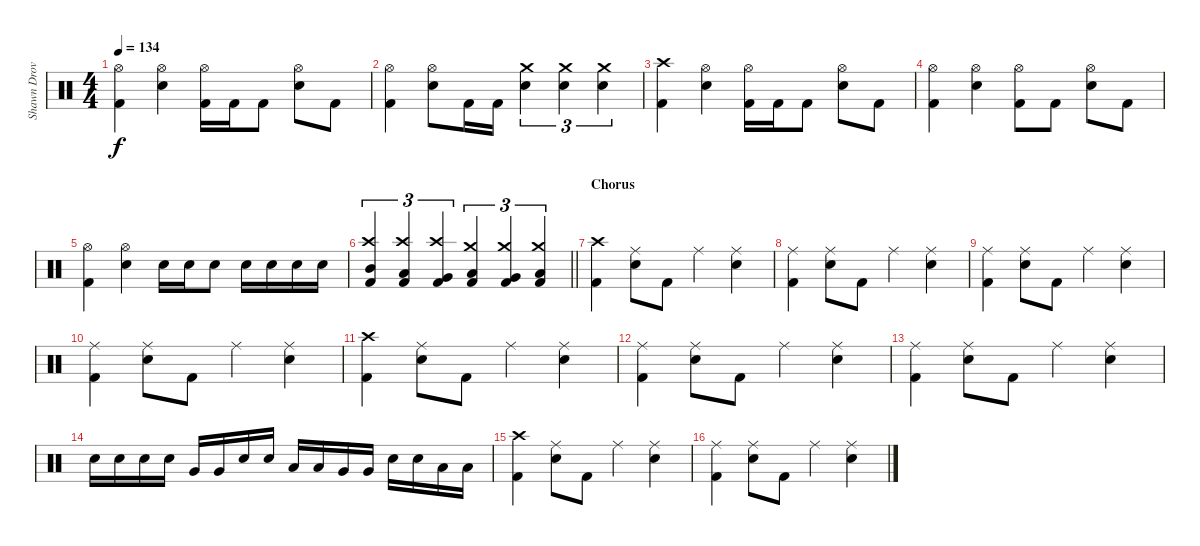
\track ("Shawn Drover" "Shawn Drov") {instrument percussion}
\staff {score}
\articulation defaults
\ts (4 4)
\tempo 134
\clef neutral
\ks c
("Hi-Hat (open)" "Kick (hit) 2").4{dy f} ("Hi-Hat (open)" "Snare (hit) 2").4 ("Hi-Hat (open)" "Kick (hit) 2").16 "Kick (hit) 2".16 "Kick (hit) 2".8 ("Hi-Hat (open)" "Snare (hit) 2").8 "Kick (hit) 2".8 |
("Hi-Hat (open)" "Kick (hit) 2").4 ("Hi-Hat (open)" "Snare (hit) 2").8 "Kick (hit) 2".16 "Kick (hit) 2".16 ("Crash medium (hit)" "Snare (hit) 2").4{tu (3 2)} ("Crash medium (hit)" "Snare (hit) 2").4{tu (3 2)} ("Crash medium (hit)" "Snare (hit) 2").4{tu (3 2)} |
("Crash high (hit)" "Kick (hit) 2").4 ("Hi-Hat (open)" "Snare (hit) 2").4 ("Hi-Hat (open)" "Kick (hit) 2").16 "Kick (hit) 2".16 "Kick (hit) 2".8 ("Hi-Hat (open)" "Snare (hit) 2").8 "Kick (hit) 2".8 |
("Hi-Hat (open)" "Kick (hit) 2").4 ("Hi-Hat (open)" "Snare (hit) 2").4 ("Hi-Hat (open)" "Kick (hit) 2").8 "Kick (hit) 2".8 ("Hi-Hat (open)" "Snare (hit) 2").8 "Kick (hit) 2".8 |
("Hi-Hat (open)" "Kick (hit) 2").4 ("Hi-Hat (open)" "Snare (hit) 2").4 "Snare (hit) 2".16 "Snare (hit) 2".16 "Snare (hit) 2".8 "Snare (hit) 2".16 "Snare (hit) 2".16 "Snare (hit) 2".16 "Snare (hit) 2".16 |
\barLineRight lightlight
("Crash high (hit)" "Mid Tom (hit)" "Kick (hit) 2").4{tu (3 2)} ("Crash high (hit)" "Low Tom (hit)" "Kick (hit) 2").4{tu (3 2)} ("Crash high (hit)" "Very Low Tom (hit)" "Kick (hit) 2").4{tu (3 2)} ("Crash medium (hit)" "Low Tom (hit)" "Kick (hit) 2").4{tu (3 2)} ("Crash medium (hit)" "Very Low Tom (hit)" "Kick (hit) 2").4{tu (3 2)} ("Crash medium (hit)" "Low Floor Tom (hit)" "Kick (hit) 2").4{tu (3 2)} |
\section ("" "Chorus")
("Crash high (hit)" "Kick (hit) 2").4 ("Ride (middle)" "Snare (hit) 2").8 "Kick (hit) 2".8 "Ride (middle)".4 ("Ride (middle)" "Snare (hit) 2").4 |
("Ride (middle)" "Kick (hit) 2").4 ("Ride (middle)" "Snare (hit) 2").8 "Kick (hit) 2".8 "Ride (middle)".4 ("Ride (middle)" "Snare (hit) 2").4 |
("Ride (middle)" "Kick (hit) 2").4 ("Ride (middle)" "Snare (hit) 2").8 "Kick (hit) 2".8 "Ride (middle)".4 ("Ride (middle)" "Snare (hit) 2").4 |
("Ride (middle)" "Kick (hit) 2").4 ("Ride (middle)" "Snare (hit) 2").8 "Kick (hit) 2".8 "Ride (middle)".4 ("Ride (middle)" "Snare (hit) 2").4 |
("Crash high (hit)" "Kick (hit) 2").4 ("Ride (middle)" "Snare (hit) 2").8 "Kick (hit) 2".8 "Ride (middle)".4 ("Ride (middle)" "Snare (hit) 2").4 |
("Ride (middle)" "Kick (hit) 2").4 ("Ride (middle)" "Snare (hit) 2").8 "Kick (hit) 2".8 "Ride (middle)".4 ("Ride (middle)" "Snare (hit) 2").4 |
("Ride (middle)" "Kick (hit) 2").4 ("Ride (middle)" "Snare (hit) 2").8 "Kick (hit) 2".8 "Ride (middle)".4 ("Ride (middle)" "Snare (hit) 2").4 |
"Snare (hit) 2".16 "Snare (hit) 2".16 "Snare (hit) 2".16 "Snare (hit) 2".16 "Very Low Tom (hit)".16 "Very Low Tom (hit)".16 "Snare (hit) 2".16 "Snare (hit) 2".16 "Low Tom (hit)".16 "Low Tom (hit)".16 "Very Low Tom (hit)".16 "Very Low Tom (hit)".16 "Snare (hit) 2".16 "Snare (hit) 2".16 "Low Floor Tom (hit)".16 "Low Floor Tom (hit)".16 |
("Crash high (hit)" "Kick (hit) 2").4 ("Ride (middle)" "Snare (hit) 2").8 "Kick (hit) 2".8 "Ride (middle)".4 ("Ride (middle)" "Snare (hit) 2").4 |
("Ride (middle)" "Kick (hit) 2").4 ("Ride (middle)" "Snare (hit) 2").8 "Kick (hit) 2".8 "Ride (middle)".4 ("Ride (middle)" "Snare (hit) 2").4
